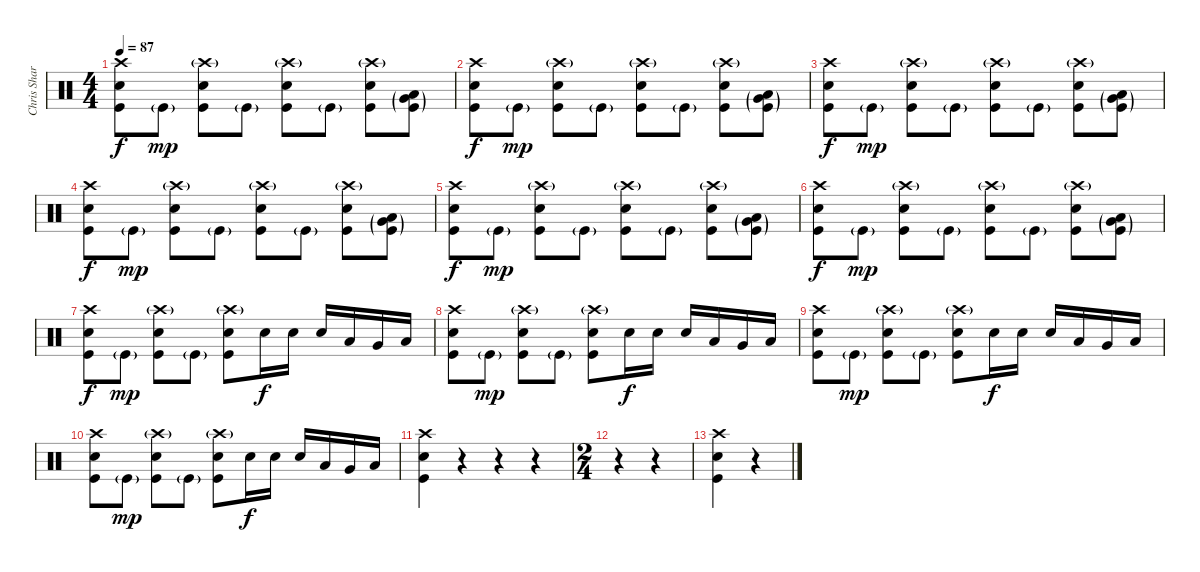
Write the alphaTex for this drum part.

\track ("Chris Sharrock" "Chris Shar") {instrument percussion}
\staff {score}
\articulation defaults
\ts (4 4)
\tempo 87
\clef neutral
\ks c
("Kick (hit)" "Snare (hit) 2" "Crash high (hit)").8{dy f} "Kick (hit)"{g}.8{dy mp} ("Kick (hit)" "Snare (hit) 2" "Crash high (hit)"{g}).8 "Kick (hit)"{g}.8 ("Kick (hit)" "Snare (hit) 2" "Crash high (hit)"{g}).8 "Kick (hit)"{g}.8 ("Kick (hit)" "Snare (hit) 2" "Crash high (hit)"{g}).8 ("Low Tom (hit)"{g} "Very Low Tom (hit)"{g} "Kick (hit)"{g}).8 |
("Kick (hit)" "Snare (hit) 2" "Crash high (hit)").8{dy f} "Kick (hit)"{g}.8{dy mp} ("Kick (hit)" "Snare (hit) 2" "Crash high (hit)"{g}).8 "Kick (hit)"{g}.8 ("Kick (hit)" "Snare (hit) 2" "Crash high (hit)"{g}).8 "Kick (hit)"{g}.8 ("Kick (hit)" "Snare (hit) 2" "Crash high (hit)"{g}).8 ("Low Tom (hit)"{g} "Very Low Tom (hit)"{g} "Kick (hit)"{g}).8 |
("Kick (hit)" "Snare (hit) 2" "Crash high (hit)").8{dy f} "Kick (hit)"{g}.8{dy mp} ("Kick (hit)" "Snare (hit) 2" "Crash high (hit)"{g}).8 "Kick (hit)"{g}.8 ("Kick (hit)" "Snare (hit) 2" "Crash high (hit)"{g}).8 "Kick (hit)"{g}.8 ("Kick (hit)" "Snare (hit) 2" "Crash high (hit)"{g}).8 ("Low Tom (hit)"{g} "Very Low Tom (hit)"{g} "Kick (hit)"{g}).8 |
("Kick (hit)" "Snare (hit) 2" "Crash high (hit)").8{dy f} "Kick (hit)"{g}.8{dy mp} ("Kick (hit)" "Snare (hit) 2" "Crash high (hit)"{g}).8 "Kick (hit)"{g}.8 ("Kick (hit)" "Snare (hit) 2" "Crash high (hit)"{g}).8 "Kick (hit)"{g}.8 ("Kick (hit)" "Snare (hit) 2" "Crash high (hit)"{g}).8 ("Low Tom (hit)"{g} "Very Low Tom (hit)"{g} "Kick (hit)"{g}).8 |
("Kick (hit)" "Snare (hit) 2" "Crash high (hit)").8{dy f} "Kick (hit)"{g}.8{dy mp} ("Kick (hit)" "Snare (hit) 2" "Crash high (hit)"{g}).8 "Kick (hit)"{g}.8 ("Kick (hit)" "Snare (hit) 2" "Crash high (hit)"{g}).8 "Kick (hit)"{g}.8 ("Kick (hit)" "Snare (hit) 2" "Crash high (hit)"{g}).8 ("Low Tom (hit)"{g} "Very Low Tom (hit)"{g} "Kick (hit)"{g}).8 |
("Kick (hit)" "Snare (hit) 2" "Crash high (hit)").8{dy f} "Kick (hit)"{g}.8{dy mp} ("Kick (hit)" "Snare (hit) 2" "Crash high (hit)"{g}).8 "Kick (hit)"{g}.8 ("Kick (hit)" "Snare (hit) 2" "Crash high (hit)"{g}).8 "Kick (hit)"{g}.8 ("Kick (hit)" "Snare (hit) 2" "Crash high (hit)"{g}).8 ("Low Tom (hit)"{g} "Very Low Tom (hit)"{g} "Kick (hit)"{g}).8 |
("Kick (hit)" "Snare (hit) 2" "Crash high (hit)").8{dy f} "Kick (hit)"{g}.8{dy mp} ("Kick (hit)" "Snare (hit) 2" "Crash high (hit)"{g}).8 "Kick (hit)"{g}.8 ("Kick (hit)" "Snare (hit) 2" "Crash high (hit)"{g}).8 "Snare (hit) 2".16{dy f} "Snare (hit) 2".16 "Snare (hit) 2".16 "Low Tom (hit)".16 "Very Low Tom (hit)".16 "Low Floor Tom (hit)".16 |
("Kick (hit)" "Snare (hit) 2" "Crash high (hit)").8 "Kick (hit)"{g}.8{dy mp} ("Kick (hit)" "Snare (hit) 2" "Crash high (hit)"{g}).8 "Kick (hit)"{g}.8 ("Kick (hit)" "Snare (hit) 2" "Crash high (hit)"{g}).8 "Snare (hit) 2".16{dy f} "Snare (hit) 2".16 "Snare (hit) 2".16 "Low Tom (hit)".16 "Very Low Tom (hit)".16 "Low Floor Tom (hit)".16 |
("Kick (hit)" "Snare (hit) 2" "Crash high (hit)").8 "Kick (hit)"{g}.8{dy mp} ("Kick (hit)" "Snare (hit) 2" "Crash high (hit)"{g}).8 "Kick (hit)"{g}.8 ("Kick (hit)" "Snare (hit) 2" "Crash high (hit)"{g}).8 "Snare (hit) 2".16{dy f} "Snare (hit) 2".16 "Snare (hit) 2".16 "Low Tom (hit)".16 "Very Low Tom (hit)".16 "Low Floor Tom (hit)".16 |
("Kick (hit)" "Snare (hit) 2" "Crash high (hit)").8 "Kick (hit)"{g}.8{dy mp} ("Kick (hit)" "Snare (hit) 2" "Crash high (hit)"{g}).8 "Kick (hit)"{g}.8 ("Kick (hit)" "Snare (hit) 2" "Crash high (hit)"{g}).8 "Snare (hit) 2".16{dy f} "Snare (hit) 2".16 "Snare (hit) 2".16 "Low Tom (hit)".16 "Very Low Tom (hit)".16 "Low Floor Tom (hit)".16 |
("Kick (hit)" "Snare (hit) 2" "Crash high (hit)").4 r.4 r.4 r.4 |
\ts (2 4)
r.4 r.4 |
("Kick (hit)" "Snare (hit) 2" "Crash high (hit)").4 r.4
